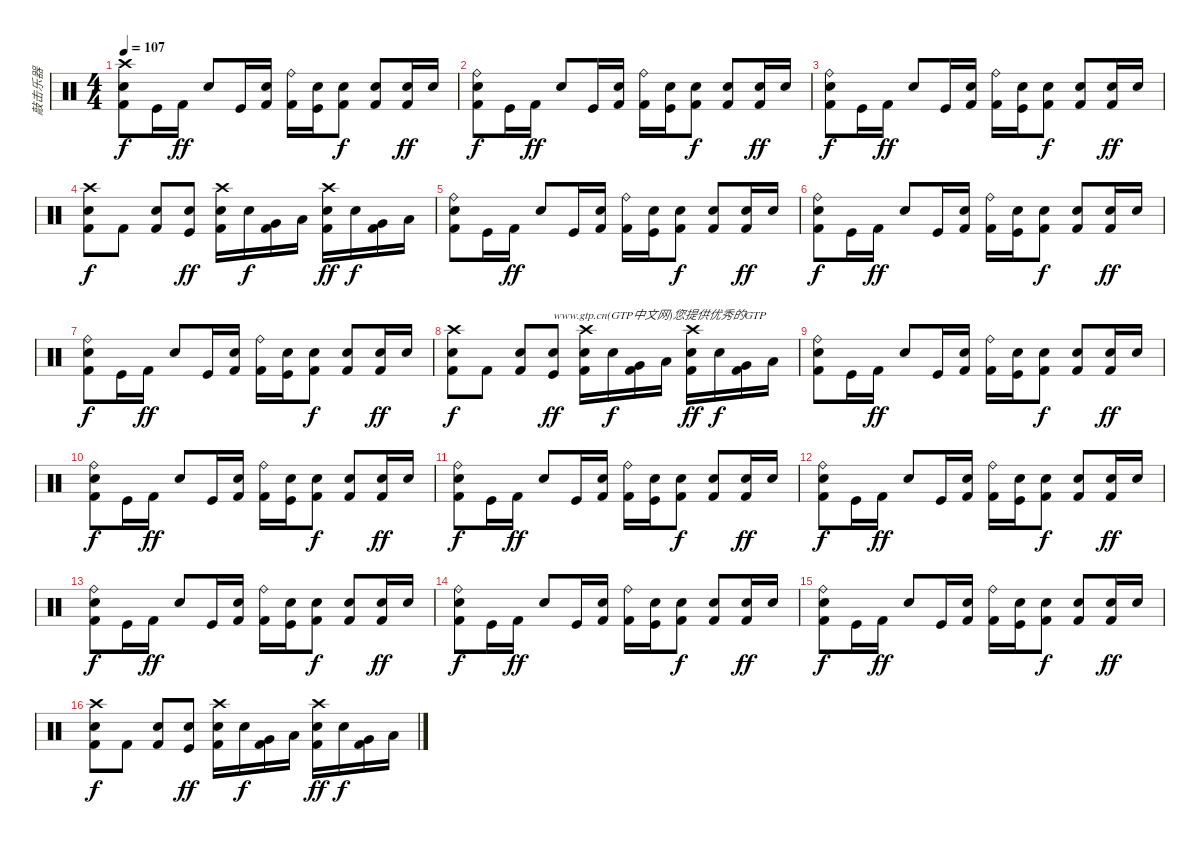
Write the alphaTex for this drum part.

\track ("敲击乐器" "敲击乐器") {instrument percussion}
\staff {score}
\articulation defaults
\ts (4 4)
\tempo 107
\clef neutral
\ks c
("Crash high (hit)" "Snare (hit) 2" "Kick (hit) 2").8{dy f} "Kick (hit)".16 "Kick (hit) 2".16{dy ff} "Electric Snare (hit)".8 "Kick (hit)".16 ("Electric Snare (hit)" "Kick (hit) 2").16 ("Ride (bell)" "Kick (hit) 2").16 ("Electric Snare (hit)" "Kick (hit)").16 ("Snare (hit) 2" "Kick (hit) 2").8{dy f} ("Electric Snare (hit)" "Kick (hit) 2").8 ("Snare (hit) 2" "Kick (hit) 2").16{dy ff} "Snare (hit) 2".16 |
("Ride (bell)" "Snare (hit) 2" "Kick (hit) 2").8{dy f} "Kick (hit)".16 "Kick (hit) 2".16{dy ff} "Electric Snare (hit)".8 "Kick (hit)".16 ("Electric Snare (hit)" "Kick (hit) 2").16 ("Ride (bell)" "Kick (hit) 2").16 ("Electric Snare (hit)" "Kick (hit)").16 ("Snare (hit) 2" "Kick (hit) 2").8{dy f} ("Electric Snare (hit)" "Kick (hit) 2").8 ("Snare (hit) 2" "Kick (hit) 2").16{dy ff} "Snare (hit) 2".16 |
("Ride (bell)" "Snare (hit) 2" "Kick (hit) 2").8{dy f} "Kick (hit)".16 "Kick (hit) 2".16{dy ff} "Electric Snare (hit)".8 "Kick (hit)".16 ("Electric Snare (hit)" "Kick (hit) 2").16 ("Ride (bell)" "Kick (hit) 2").16 ("Electric Snare (hit)" "Kick (hit)").16 ("Snare (hit) 2" "Kick (hit) 2").8{dy f} ("Electric Snare (hit)" "Kick (hit) 2").8 ("Snare (hit) 2" "Kick (hit) 2").16{dy ff} "Snare (hit) 2".16 |
("Crash high (hit)" "Snare (hit) 2" "Kick (hit) 2").8{dy f} "Kick (hit) 2".8 ("Electric Snare (hit)" "Kick (hit) 2").8 ("Snare (hit) 2" "Kick (hit)").8{dy ff} ("Crash high (hit)" "Electric Snare (hit)" "Kick (hit) 2").16 "Snare (hit) 2".16{dy f} ("Very Low Tom (hit)" "Kick (hit) 2").16 "Low Floor Tom (hit)".16 ("Crash high (hit)" "Electric Snare (hit)" "Kick (hit) 2").16{dy ff} "Snare (hit) 2".16{dy f} ("Very Low Tom (hit)" "Kick (hit) 2").16 "Low Floor Tom (hit)".16 |
("Ride (bell)" "Snare (hit) 2" "Kick (hit) 2").8 "Kick (hit)".16 "Kick (hit) 2".16{dy ff} "Electric Snare (hit)".8 "Kick (hit)".16 ("Electric Snare (hit)" "Kick (hit) 2").16 ("Ride (bell)" "Kick (hit) 2").16 ("Electric Snare (hit)" "Kick (hit)").16 ("Snare (hit) 2" "Kick (hit) 2").8{dy f} ("Electric Snare (hit)" "Kick (hit) 2").8 ("Snare (hit) 2" "Kick (hit) 2").16{dy ff} "Snare (hit) 2".16 |
("Ride (bell)" "Snare (hit) 2" "Kick (hit) 2").8{dy f} "Kick (hit)".16 "Kick (hit) 2".16{dy ff} "Electric Snare (hit)".8 "Kick (hit)".16 ("Electric Snare (hit)" "Kick (hit) 2").16 ("Ride (bell)" "Kick (hit) 2").16 ("Electric Snare (hit)" "Kick (hit)").16 ("Snare (hit) 2" "Kick (hit) 2").8{dy f} ("Electric Snare (hit)" "Kick (hit) 2").8 ("Snare (hit) 2" "Kick (hit) 2").16{dy ff} "Snare (hit) 2".16 |
("Ride (bell)" "Snare (hit) 2" "Kick (hit) 2").8{dy f} "Kick (hit)".16 "Kick (hit) 2".16{dy ff} "Electric Snare (hit)".8 "Kick (hit)".16 ("Electric Snare (hit)" "Kick (hit) 2").16 ("Ride (bell)" "Kick (hit) 2").16 ("Electric Snare (hit)" "Kick (hit)").16 ("Snare (hit) 2" "Kick (hit) 2").8{dy f} ("Electric Snare (hit)" "Kick (hit) 2").8 ("Snare (hit) 2" "Kick (hit) 2").16{dy ff} "Snare (hit) 2".16 |
("Crash high (hit)" "Snare (hit) 2" "Kick (hit) 2").8{dy f} "Kick (hit) 2".8 ("Electric Snare (hit)" "Kick (hit) 2").8 ("Snare (hit) 2" "Kick (hit)").8{txt "www.gtp.cn(GTP中文网)您提供优秀的GTP" dy ff} ("Crash high (hit)" "Electric Snare (hit)" "Kick (hit) 2").16 "Snare (hit) 2".16{dy f} ("Very Low Tom (hit)" "Kick (hit) 2").16 "Low Floor Tom (hit)".16 ("Crash high (hit)" "Electric Snare (hit)" "Kick (hit) 2").16{dy ff} "Snare (hit) 2".16{dy f} ("Very Low Tom (hit)" "Kick (hit) 2").16 "Low Floor Tom (hit)".16 |
("Ride (bell)" "Snare (hit) 2" "Kick (hit) 2").8 "Kick (hit)".16 "Kick (hit) 2".16{dy ff} "Electric Snare (hit)".8 "Kick (hit)".16 ("Electric Snare (hit)" "Kick (hit) 2").16 ("Ride (bell)" "Kick (hit) 2").16 ("Electric Snare (hit)" "Kick (hit)").16 ("Snare (hit) 2" "Kick (hit) 2").8{dy f} ("Electric Snare (hit)" "Kick (hit) 2").8 ("Snare (hit) 2" "Kick (hit) 2").16{dy ff} "Snare (hit) 2".16 |
("Ride (bell)" "Snare (hit) 2" "Kick (hit) 2").8{dy f} "Kick (hit)".16 "Kick (hit) 2".16{dy ff} "Electric Snare (hit)".8 "Kick (hit)".16 ("Electric Snare (hit)" "Kick (hit) 2").16 ("Ride (bell)" "Kick (hit) 2").16 ("Electric Snare (hit)" "Kick (hit)").16 ("Snare (hit) 2" "Kick (hit) 2").8{dy f} ("Electric Snare (hit)" "Kick (hit) 2").8 ("Snare (hit) 2" "Kick (hit) 2").16{dy ff} "Snare (hit) 2".16 |
("Ride (bell)" "Snare (hit) 2" "Kick (hit) 2").8{dy f} "Kick (hit)".16 "Kick (hit) 2".16{dy ff} "Electric Snare (hit)".8 "Kick (hit)".16 ("Electric Snare (hit)" "Kick (hit) 2").16 ("Ride (bell)" "Kick (hit) 2").16 ("Electric Snare (hit)" "Kick (hit)").16 ("Snare (hit) 2" "Kick (hit) 2").8{dy f} ("Electric Snare (hit)" "Kick (hit) 2").8 ("Snare (hit) 2" "Kick (hit) 2").16{dy ff} "Snare (hit) 2".16 |
("Ride (bell)" "Snare (hit) 2" "Kick (hit) 2").8{dy f} "Kick (hit)".16 "Kick (hit) 2".16{dy ff} "Electric Snare (hit)".8 "Kick (hit)".16 ("Electric Snare (hit)" "Kick (hit) 2").16 ("Ride (bell)" "Kick (hit) 2").16 ("Electric Snare (hit)" "Kick (hit)").16 ("Snare (hit) 2" "Kick (hit) 2").8{dy f} ("Electric Snare (hit)" "Kick (hit) 2").8 ("Snare (hit) 2" "Kick (hit) 2").16{dy ff} "Snare (hit) 2".16 |
("Ride (bell)" "Snare (hit) 2" "Kick (hit) 2").8{dy f} "Kick (hit)".16 "Kick (hit) 2".16{dy ff} "Electric Snare (hit)".8 "Kick (hit)".16 ("Electric Snare (hit)" "Kick (hit) 2").16 ("Ride (bell)" "Kick (hit) 2").16 ("Electric Snare (hit)" "Kick (hit)").16 ("Snare (hit) 2" "Kick (hit) 2").8{dy f} ("Electric Snare (hit)" "Kick (hit) 2").8 ("Snare (hit) 2" "Kick (hit) 2").16{dy ff} "Snare (hit) 2".16 |
("Ride (bell)" "Snare (hit) 2" "Kick (hit) 2").8{dy f} "Kick (hit)".16 "Kick (hit) 2".16{dy ff} "Electric Snare (hit)".8 "Kick (hit)".16 ("Electric Snare (hit)" "Kick (hit) 2").16 ("Ride (bell)" "Kick (hit) 2").16 ("Electric Snare (hit)" "Kick (hit)").16 ("Snare (hit) 2" "Kick (hit) 2").8{dy f} ("Electric Snare (hit)" "Kick (hit) 2").8 ("Snare (hit) 2" "Kick (hit) 2").16{dy ff} "Snare (hit) 2".16 |
("Ride (bell)" "Snare (hit) 2" "Kick (hit) 2").8{dy f} "Kick (hit)".16 "Kick (hit) 2".16{dy ff} "Electric Snare (hit)".8 "Kick (hit)".16 ("Electric Snare (hit)" "Kick (hit) 2").16 ("Ride (bell)" "Kick (hit) 2").16 ("Electric Snare (hit)" "Kick (hit)").16 ("Snare (hit) 2" "Kick (hit) 2").8{dy f} ("Electric Snare (hit)" "Kick (hit) 2").8 ("Snare (hit) 2" "Kick (hit) 2").16{dy ff} "Snare (hit) 2".16 |
("Crash high (hit)" "Snare (hit) 2" "Kick (hit) 2").8{dy f} "Kick (hit) 2".8 ("Electric Snare (hit)" "Kick (hit) 2").8 ("Snare (hit) 2" "Kick (hit)").8{dy ff} ("Crash high (hit)" "Electric Snare (hit)" "Kick (hit) 2").16 "Snare (hit) 2".16{dy f} ("Very Low Tom (hit)" "Kick (hit) 2").16 "Low Floor Tom (hit)".16 ("Crash high (hit)" "Electric Snare (hit)" "Kick (hit) 2").16{dy ff} "Snare (hit) 2".16{dy f} ("Very Low Tom (hit)" "Kick (hit) 2").16 "Low Floor Tom (hit)".16
